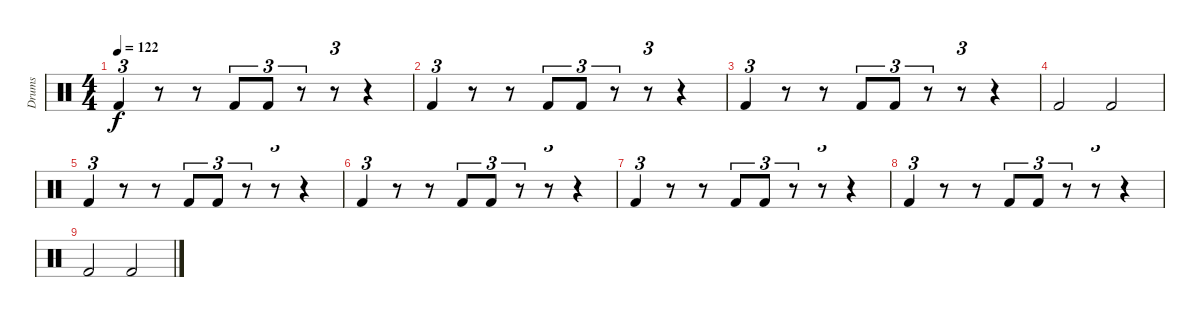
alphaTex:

\track ("Drums" "Drums") {instrument percussion}
\staff {score}
\articulation defaults
\ts (4 4)
\tempo 122
\clef neutral
\ks c "Kick (hit) 2".4{tu (3 2) dy f}
r.8 r.8 "Kick (hit) 2".8{tu (3 2)} "Kick (hit) 2".8{tu (3 2)} r.8{tu (3 2)} r.8{tu (3 2)} r.4 |
"Kick (hit) 2".4{tu (3 2)} r.8 r.8 "Kick (hit) 2".8{tu (3 2)} "Kick (hit) 2".8{tu (3 2)} r.8{tu (3 2)} r.8{tu (3 2)} r.4 |
"Kick (hit) 2".4{tu (3 2)} r.8 r.8 "Kick (hit) 2".8{tu (3 2)} "Kick (hit) 2".8{tu (3 2)} r.8{tu (3 2)} r.8{tu (3 2)} r.4 |
"Kick (hit) 2".2 "Kick (hit) 2".2 |
"Kick (hit) 2".4{tu (3 2)} r.8 r.8 "Kick (hit) 2".8{tu (3 2)} "Kick (hit) 2".8{tu (3 2)} r.8{tu (3 2)} r.8{tu (3 2)} r.4 |
"Kick (hit) 2".4{tu (3 2)} r.8 r.8 "Kick (hit) 2".8{tu (3 2)} "Kick (hit) 2".8{tu (3 2)} r.8{tu (3 2)} r.8{tu (3 2)} r.4 |
"Kick (hit) 2".4{tu (3 2)} r.8 r.8 "Kick (hit) 2".8{tu (3 2)} "Kick (hit) 2".8{tu (3 2)} r.8{tu (3 2)} r.8{tu (3 2)} r.4 |
"Kick (hit) 2".4{tu (3 2)} r.8 r.8 "Kick (hit) 2".8{tu (3 2)} "Kick (hit) 2".8{tu (3 2)} r.8{tu (3 2)} r.8{tu (3 2)} r.4 |
"Kick (hit) 2".2 "Kick (hit) 2".2
